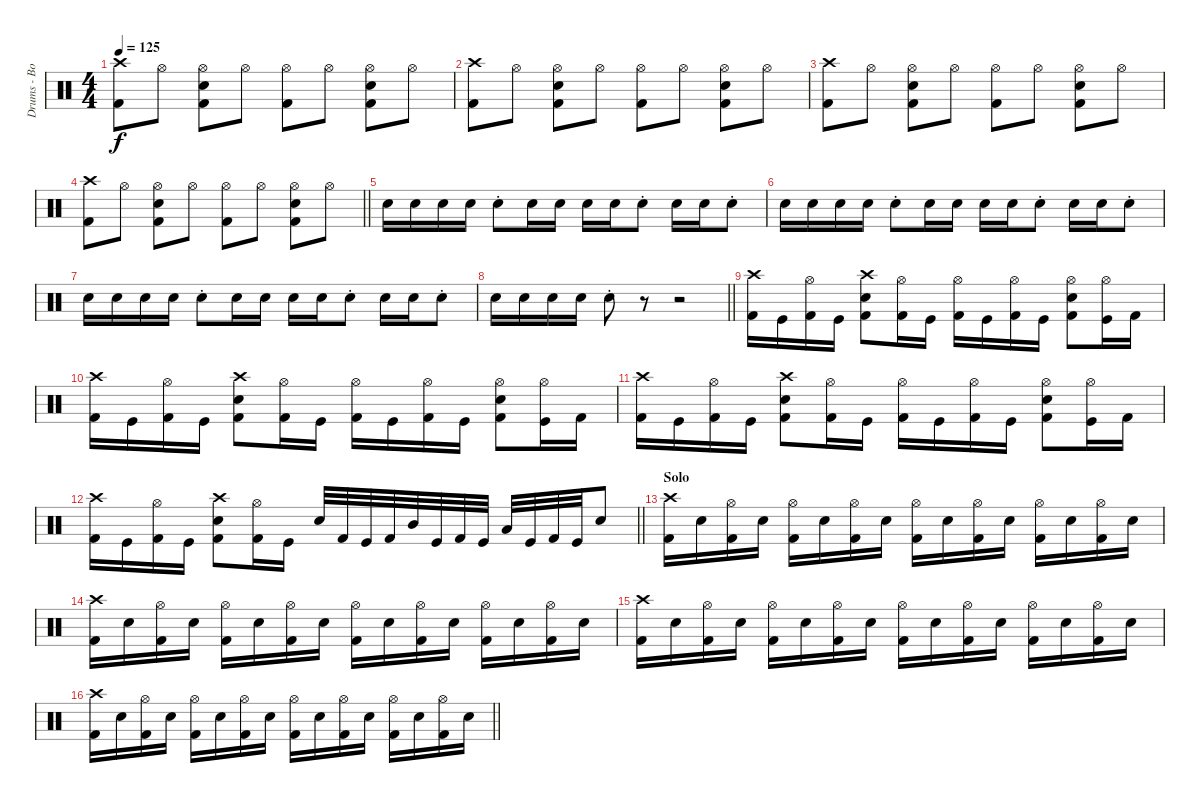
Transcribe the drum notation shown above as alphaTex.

\track ("Drums - Bobby Schottkowski" "Drums - Bo") {instrument percussion}
\staff {score}
\articulation defaults
\ts (4 4)
\tempo 125
\clef neutral
\ks c
("Kick (hit) 2" "Crash high (hit)").8{dy f} "Hi-Hat (open)".8 ("Kick (hit) 2" "Snare (hit) 2" "Hi-Hat (open)").8 "Hi-Hat (open)".8 ("Kick (hit) 2" "Hi-Hat (open)").8 "Hi-Hat (open)".8 ("Kick (hit) 2" "Snare (hit) 2" "Hi-Hat (open)").8 "Hi-Hat (open)".8 |
("Kick (hit) 2" "Crash high (hit)").8 "Hi-Hat (open)".8 ("Kick (hit) 2" "Snare (hit) 2" "Hi-Hat (open)").8 "Hi-Hat (open)".8 ("Kick (hit) 2" "Hi-Hat (open)").8 "Hi-Hat (open)".8 ("Kick (hit) 2" "Snare (hit) 2" "Hi-Hat (open)").8 "Hi-Hat (open)".8 |
("Kick (hit) 2" "Crash high (hit)").8 "Hi-Hat (open)".8 ("Kick (hit) 2" "Snare (hit) 2" "Hi-Hat (open)").8 "Hi-Hat (open)".8 ("Kick (hit) 2" "Hi-Hat (open)").8 "Hi-Hat (open)".8 ("Kick (hit) 2" "Snare (hit) 2" "Hi-Hat (open)").8 "Hi-Hat (open)".8 |
\barLineRight lightlight
("Kick (hit) 2" "Crash high (hit)").8 "Hi-Hat (open)".8 ("Kick (hit) 2" "Snare (hit) 2" "Hi-Hat (open)").8 "Hi-Hat (open)".8 ("Kick (hit) 2" "Hi-Hat (open)").8 "Hi-Hat (open)".8 ("Kick (hit) 2" "Snare (hit) 2" "Hi-Hat (open)").8 "Hi-Hat (open)".8 |
"Snare (hit) 2".16 "Snare (hit) 2".16 "Snare (hit) 2".16 "Snare (hit) 2".16 "Snare (hit) 2"{st}.8 "Snare (hit) 2".16 "Snare (hit) 2".16 "Snare (hit) 2".16 "Snare (hit) 2".16 "Snare (hit) 2"{st}.8 "Snare (hit) 2".16 "Snare (hit) 2".16 "Snare (hit) 2"{st}.8 |
"Snare (hit) 2".16 "Snare (hit) 2".16 "Snare (hit) 2".16 "Snare (hit) 2".16 "Snare (hit) 2"{st}.8 "Snare (hit) 2".16 "Snare (hit) 2".16 "Snare (hit) 2".16 "Snare (hit) 2".16 "Snare (hit) 2"{st}.8 "Snare (hit) 2".16 "Snare (hit) 2".16 "Snare (hit) 2"{st}.8 |
"Snare (hit) 2".16 "Snare (hit) 2".16 "Snare (hit) 2".16 "Snare (hit) 2".16 "Snare (hit) 2"{st}.8 "Snare (hit) 2".16 "Snare (hit) 2".16 "Snare (hit) 2".16 "Snare (hit) 2".16 "Snare (hit) 2"{st}.8 "Snare (hit) 2".16 "Snare (hit) 2".16 "Snare (hit) 2"{st}.8 |
\barLineRight lightlight "Snare (hit) 2".16 "Snare (hit) 2".16 "Snare (hit) 2".16 "Snare (hit) 2".16 "Snare (hit) 2"{st}.8
r.8 r.2 |
("Kick (hit) 2" "Crash high (hit)").16 "Kick (hit)".16 ("Kick (hit) 2" "Hi-Hat (open)").16 "Kick (hit)".16 ("Kick (hit) 2" "Snare (hit) 2" "Crash high (hit)").8 ("Kick (hit) 2" "Hi-Hat (open)").16 "Kick (hit)".16 ("Kick (hit) 2" "Hi-Hat (open)").16 "Kick (hit)".16 ("Kick (hit) 2" "Hi-Hat (open)").16 "Kick (hit)".16 ("Kick (hit) 2" "Snare (hit) 2" "Hi-Hat (open)").8 ("Kick (hit)" "Hi-Hat (open)").16 "Kick (hit) 2".16 |
("Kick (hit) 2" "Crash high (hit)").16 "Kick (hit)".16 ("Kick (hit) 2" "Hi-Hat (open)").16 "Kick (hit)".16 ("Kick (hit) 2" "Snare (hit) 2" "Crash high (hit)").8 ("Kick (hit) 2" "Hi-Hat (open)").16 "Kick (hit)".16 ("Kick (hit) 2" "Hi-Hat (open)").16 "Kick (hit)".16 ("Kick (hit) 2" "Hi-Hat (open)").16 "Kick (hit)".16 ("Kick (hit) 2" "Snare (hit) 2" "Hi-Hat (open)").8 ("Kick (hit)" "Hi-Hat (open)").16 "Kick (hit) 2".16 |
("Kick (hit) 2" "Crash high (hit)").16 "Kick (hit)".16 ("Kick (hit) 2" "Hi-Hat (open)").16 "Kick (hit)".16 ("Kick (hit) 2" "Snare (hit) 2" "Crash high (hit)").8 ("Kick (hit) 2" "Hi-Hat (open)").16 "Kick (hit)".16 ("Kick (hit) 2" "Hi-Hat (open)").16 "Kick (hit)".16 ("Kick (hit) 2" "Hi-Hat (open)").16 "Kick (hit)".16 ("Kick (hit) 2" "Snare (hit) 2" "Hi-Hat (open)").8 ("Kick (hit)" "Hi-Hat (open)").16 "Kick (hit) 2".16 |
\barLineRight lightlight
("Kick (hit) 2" "Crash high (hit)").16 "Kick (hit)".16 ("Kick (hit) 2" "Hi-Hat (open)").16 "Kick (hit)".16 ("Kick (hit) 2" "Snare (hit) 2" "Crash high (hit)").8 ("Kick (hit) 2" "Hi-Hat (open)").16 "Kick (hit)".16 "Snare (hit) 2".32 "Kick (hit) 2".32 "Kick (hit)".32 "Kick (hit) 2".32 "Mid Tom (hit)".32 "Kick (hit)".32 "Kick (hit) 2".32 "Kick (hit)".32 "Low Tom (hit)".32 "Kick (hit)".32 "Kick (hit) 2".32 "Kick (hit)".32 "Snare (hit) 2".8 |
\section ("" "Solo")
("Kick (hit) 2" "Crash high (hit)").16 "Snare (hit) 2".16 ("Kick (hit) 2" "Hi-Hat (open)").16 "Snare (hit) 2".16 ("Kick (hit) 2" "Hi-Hat (open)").16 "Snare (hit) 2".16 ("Kick (hit) 2" "Hi-Hat (open)").16 "Snare (hit) 2".16 ("Kick (hit) 2" "Hi-Hat (open)").16 "Snare (hit) 2".16 ("Kick (hit) 2" "Hi-Hat (open)").16 "Snare (hit) 2".16 ("Kick (hit) 2" "Hi-Hat (open)").16 "Snare (hit) 2".16 ("Kick (hit) 2" "Hi-Hat (open)").16 "Snare (hit) 2".16 |
("Kick (hit) 2" "Crash high (hit)").16 "Snare (hit) 2".16 ("Kick (hit) 2" "Hi-Hat (open)").16 "Snare (hit) 2".16 ("Kick (hit) 2" "Hi-Hat (open)").16 "Snare (hit) 2".16 ("Kick (hit) 2" "Hi-Hat (open)").16 "Snare (hit) 2".16 ("Kick (hit) 2" "Hi-Hat (open)").16 "Snare (hit) 2".16 ("Kick (hit) 2" "Hi-Hat (open)").16 "Snare (hit) 2".16 ("Kick (hit) 2" "Hi-Hat (open)").16 "Snare (hit) 2".16 ("Kick (hit) 2" "Hi-Hat (open)").16 "Snare (hit) 2".16 |
("Kick (hit) 2" "Crash high (hit)").16 "Snare (hit) 2".16 ("Kick (hit) 2" "Hi-Hat (open)").16 "Snare (hit) 2".16 ("Kick (hit) 2" "Hi-Hat (open)").16 "Snare (hit) 2".16 ("Kick (hit) 2" "Hi-Hat (open)").16 "Snare (hit) 2".16 ("Kick (hit) 2" "Hi-Hat (open)").16 "Snare (hit) 2".16 ("Kick (hit) 2" "Hi-Hat (open)").16 "Snare (hit) 2".16 ("Kick (hit) 2" "Hi-Hat (open)").16 "Snare (hit) 2".16 ("Kick (hit) 2" "Hi-Hat (open)").16 "Snare (hit) 2".16 |
\barLineRight lightlight
("Kick (hit) 2" "Crash high (hit)").16 "Snare (hit) 2".16 ("Kick (hit) 2" "Hi-Hat (open)").16 "Snare (hit) 2".16 ("Kick (hit) 2" "Hi-Hat (open)").16 "Snare (hit) 2".16 ("Kick (hit) 2" "Hi-Hat (open)").16 "Snare (hit) 2".16 ("Kick (hit) 2" "Hi-Hat (open)").16 "Snare (hit) 2".16 ("Kick (hit) 2" "Hi-Hat (open)").16 "Snare (hit) 2".16 ("Kick (hit) 2" "Hi-Hat (open)").16 "Snare (hit) 2".16 ("Kick (hit) 2" "Hi-Hat (open)").16 "Snare (hit) 2".16
